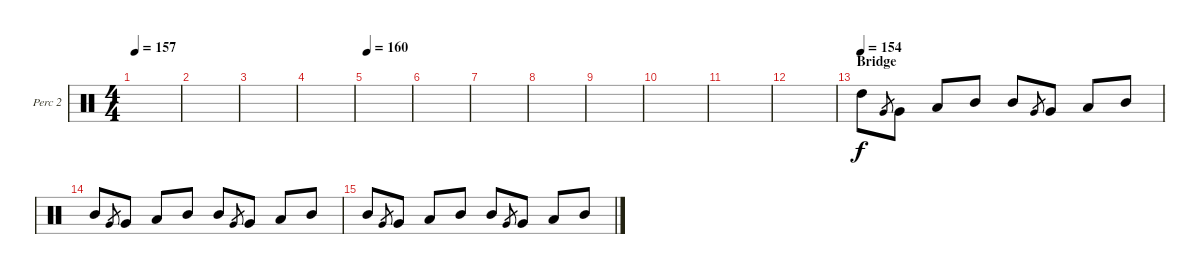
\defaultSystemsLayout 4
\bracketExtendMode groupsimilarinstruments
\firstSystemTrackNameOrientation horizontal
\otherSystemsTrackNameOrientation horizontal
\track ("Percussion 2" "Perc 2") {instrument percussion}
\staff {score}
\articulation defaults
\ts (4 4)
\tempo 157
\clef neutral
\scale
0.333333
\ks c
|
\scale
0.333333 |
\scale
0.333333 |
\scale
0.333333 |
\tempo 160
\scale
0.333333 |
\scale
0.333333 |
\scale
0.333333 |
\scale
0.333333 |
\scale
0.333333 |
\scale
0.333333 |
\scale
0.333333 |
\scale
0.333333 |
\section ("" "Bridge")
\tempo 154
\scale
0.333333 "High Tom (hit)".8 "Very Low Tom (hit)".8{gr} "Very Low Tom (hit)".8 "Low Tom (hit)".8 "Mid Tom (hit)".8 "Mid Tom (hit)".8 "Very Low Tom (hit)".8{gr} "Very Low Tom (hit)".8 "Low Tom (hit)".8 "Mid Tom (hit)".8 |
\scale
0.333333 "Mid Tom (hit)".8 "Very Low Tom (hit)".8{gr} "Very Low Tom (hit)".8 "Low Tom (hit)".8 "Mid Tom (hit)".8 "Mid Tom (hit)".8 "Very Low Tom (hit)".8{gr} "Very Low Tom (hit)".8 "Low Tom (hit)".8 "Mid Tom (hit)".8 |
\scale
0.333333 "Mid Tom (hit)".8 "Very Low Tom (hit)".8{gr} "Very Low Tom (hit)".8 "Low Tom (hit)".8 "Mid Tom (hit)".8 "Mid Tom (hit)".8 "Very Low Tom (hit)".8{gr} "Very Low Tom (hit)".8 "Low Tom (hit)".8 "Mid Tom (hit)".8 |
\scale
0.333333
